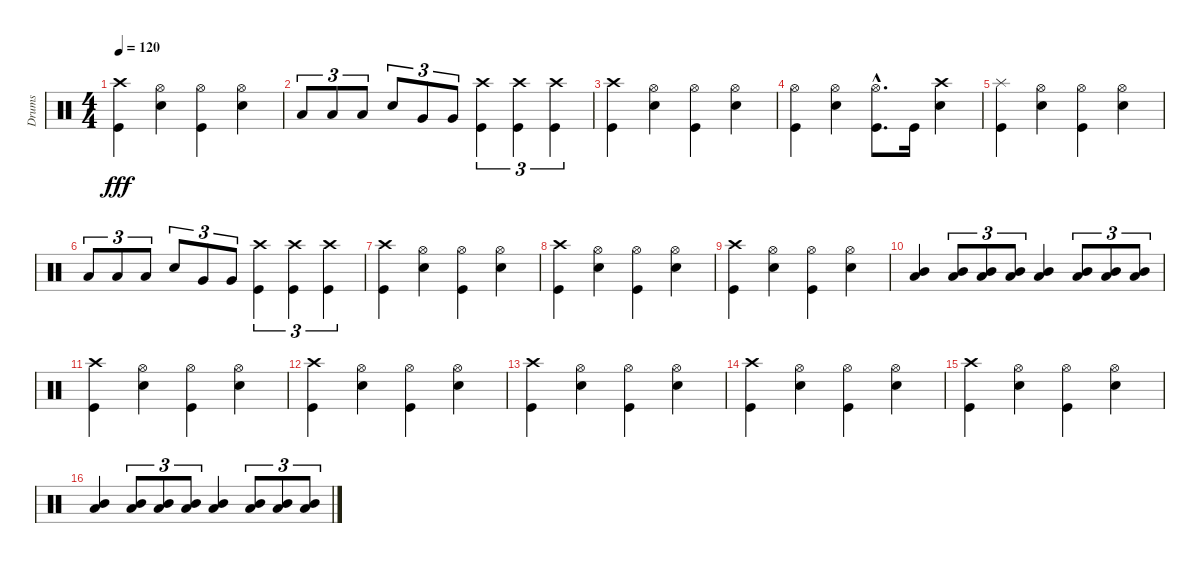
\track ("Drums" "Drums") {instrument percussion}
\staff {score}
\articulation defaults
\ts (4 4)
\tempo 120
\clef neutral
\ks c
("Crash high (hit)" "Kick (hit)").4{dy fff} ("Hi-Hat (open)" "Snare (hit) 2").4 ("Hi-Hat (open)" "Kick (hit)").4 ("Hi-Hat (open)" "Snare (hit) 2").4 |
"Low Tom (hit)".8{tu (3 2)} "Low Tom (hit)".8{tu (3 2)} "Low Tom (hit)".8{tu (3 2)} "Snare (hit) 2".8{tu (3 2)} "Very Low Tom (hit)".8{tu (3 2)} "Very Low Tom (hit)".8{tu (3 2)} ("Crash high (hit)" "Kick (hit)").4{tu (3 2)} ("Crash high (hit)" "Kick (hit)").4{tu (3 2)} ("Crash high (hit)" "Kick (hit)").4{tu (3 2)} |
("Crash high (hit)" "Kick (hit)").4 ("Hi-Hat (open)" "Snare (hit) 2").4 ("Hi-Hat (open)" "Kick (hit)").4 ("Hi-Hat (open)" "Snare (hit) 2").4 |
("Hi-Hat (open)" "Kick (hit)").4 ("Hi-Hat (open)" "Snare (hit) 2").4 ("Hi-Hat (open)"{hac} "Kick (hit)"{hac}).8{d} "Kick (hit)".16 ("Crash high (hit)" "Snare (hit) 2").4 |
("Splash (hit)" "Kick (hit)").4 ("Hi-Hat (open)" "Snare (hit) 2").4 ("Hi-Hat (open)" "Kick (hit)").4 ("Hi-Hat (open)" "Snare (hit) 2").4 |
"Low Tom (hit)".8{tu (3 2)} "Low Tom (hit)".8{tu (3 2)} "Low Tom (hit)".8{tu (3 2)} "Snare (hit) 2".8{tu (3 2)} "Very Low Tom (hit)".8{tu (3 2)} "Very Low Tom (hit)".8{tu (3 2)} ("Crash high (hit)" "Kick (hit)").4{tu (3 2)} ("Crash high (hit)" "Kick (hit)").4{tu (3 2)} ("Crash high (hit)" "Kick (hit)").4{tu (3 2)} |
("Crash high (hit)" "Kick (hit)").4 ("Hi-Hat (open)" "Snare (hit) 2").4 ("Hi-Hat (open)" "Kick (hit)").4 ("Hi-Hat (open)" "Snare (hit) 2").4 |
("Crash high (hit)" "Kick (hit)").4 ("Hi-Hat (open)" "Snare (hit) 2").4 ("Hi-Hat (open)" "Kick (hit)").4 ("Hi-Hat (open)" "Snare (hit) 2").4 |
("Crash high (hit)" "Kick (hit)").4 ("Hi-Hat (open)" "Snare (hit) 2").4 ("Hi-Hat (open)" "Kick (hit)").4 ("Hi-Hat (open)" "Snare (hit) 2").4 |
("Mid Tom (hit)" "Low Tom (hit)").4 ("Mid Tom (hit)" "Low Tom (hit)").8{tu (3 2)} ("Mid Tom (hit)" "Low Tom (hit)").8{tu (3 2)} ("Mid Tom (hit)" "Low Tom (hit)").8{tu (3 2)} ("Mid Tom (hit)" "Low Tom (hit)").4 ("Mid Tom (hit)" "Low Tom (hit)").8{tu (3 2)} ("Mid Tom (hit)" "Low Tom (hit)").8{tu (3 2)} ("Mid Tom (hit)" "Low Tom (hit)").8{tu (3 2)} |
("Crash high (hit)" "Kick (hit)").4 ("Hi-Hat (open)" "Snare (hit) 2").4 ("Hi-Hat (open)" "Kick (hit)").4 ("Hi-Hat (open)" "Snare (hit) 2").4 |
("Crash high (hit)" "Kick (hit)").4 ("Hi-Hat (open)" "Snare (hit) 2").4 ("Hi-Hat (open)" "Kick (hit)").4 ("Hi-Hat (open)" "Snare (hit) 2").4 |
("Crash high (hit)" "Kick (hit)").4 ("Hi-Hat (open)" "Snare (hit) 2").4 ("Hi-Hat (open)" "Kick (hit)").4 ("Hi-Hat (open)" "Snare (hit) 2").4 |
("Crash high (hit)" "Kick (hit)").4 ("Hi-Hat (open)" "Snare (hit) 2").4 ("Hi-Hat (open)" "Kick (hit)").4 ("Hi-Hat (open)" "Snare (hit) 2").4 |
("Crash high (hit)" "Kick (hit)").4 ("Hi-Hat (open)" "Snare (hit) 2").4 ("Hi-Hat (open)" "Kick (hit)").4 ("Hi-Hat (open)" "Snare (hit) 2").4 |
("Mid Tom (hit)" "Low Tom (hit)").4 ("Mid Tom (hit)" "Low Tom (hit)").8{tu (3 2)} ("Mid Tom (hit)" "Low Tom (hit)").8{tu (3 2)} ("Mid Tom (hit)" "Low Tom (hit)").8{tu (3 2)} ("Mid Tom (hit)" "Low Tom (hit)").4 ("Mid Tom (hit)" "Low Tom (hit)").8{tu (3 2)} ("Mid Tom (hit)" "Low Tom (hit)").8{tu (3 2)} ("Mid Tom (hit)" "Low Tom (hit)").8{tu (3 2)}
